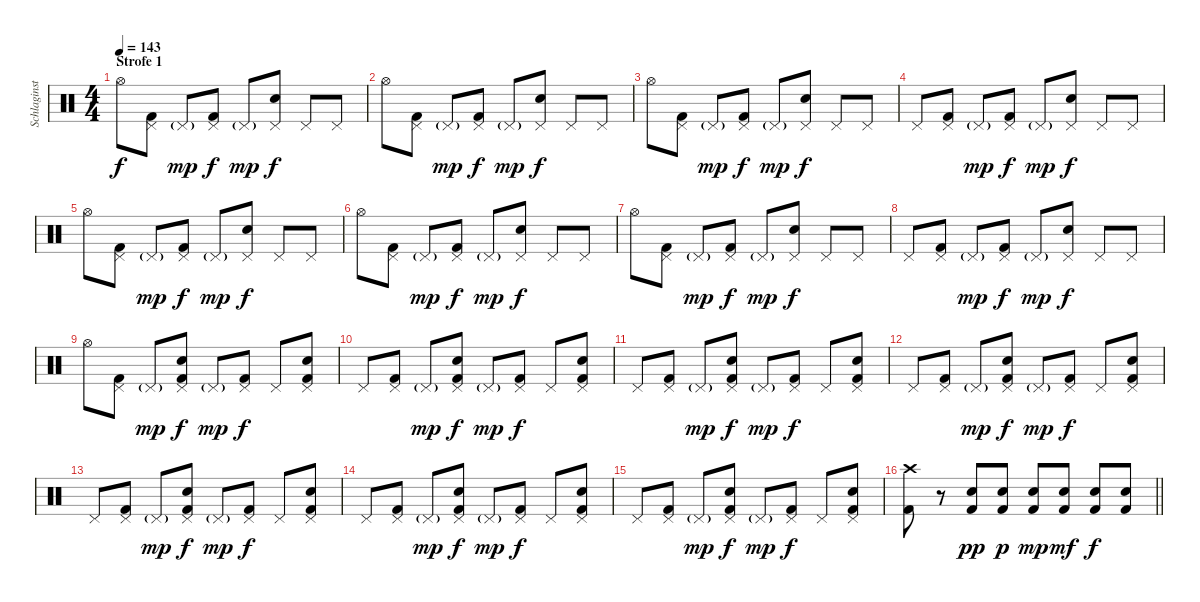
\track ("Schlaginstrumente - Auswahl" "Schlaginst") {instrument percussion}
\staff {score}
\articulation defaults
\ts (4 4)
\section ("" "Strofe 1")
\tempo 143
\clef neutral
\ks c "Hi-Hat (open)".8{dy f}
("Pedal Hi-Hat (hit)" "Kick (hit) 2").8 "Pedal Hi-Hat (hit)"{g}.8{dy mp} ("Pedal Hi-Hat (hit)" "Kick (hit) 2").8{dy f} "Pedal Hi-Hat (hit)"{g}.8{dy mp} ("Pedal Hi-Hat (hit)" "Electric Snare (hit)").8{dy f} "Pedal Hi-Hat (hit)".8 "Pedal Hi-Hat (hit)".8 |
"Hi-Hat (open)".8 ("Pedal Hi-Hat (hit)" "Kick (hit) 2").8 "Pedal Hi-Hat (hit)"{g}.8{dy mp} ("Pedal Hi-Hat (hit)" "Kick (hit) 2").8{dy f} "Pedal Hi-Hat (hit)"{g}.8{dy mp} ("Pedal Hi-Hat (hit)" "Electric Snare (hit)").8{dy f} "Pedal Hi-Hat (hit)".8 "Pedal Hi-Hat (hit)".8 |
"Hi-Hat (open)".8 ("Pedal Hi-Hat (hit)" "Kick (hit) 2").8 "Pedal Hi-Hat (hit)"{g}.8{dy mp} ("Pedal Hi-Hat (hit)" "Kick (hit) 2").8{dy f} "Pedal Hi-Hat (hit)"{g}.8{dy mp} ("Pedal Hi-Hat (hit)" "Electric Snare (hit)").8{dy f} "Pedal Hi-Hat (hit)".8 "Pedal Hi-Hat (hit)".8 |
"Pedal Hi-Hat (hit)".8 ("Pedal Hi-Hat (hit)" "Kick (hit) 2").8 "Pedal Hi-Hat (hit)"{g}.8{dy mp} ("Pedal Hi-Hat (hit)" "Kick (hit) 2").8{dy f} "Pedal Hi-Hat (hit)"{g}.8{dy mp} ("Pedal Hi-Hat (hit)" "Electric Snare (hit)").8{dy f} "Pedal Hi-Hat (hit)".8 "Pedal Hi-Hat (hit)".8 |
"Hi-Hat (open)".8 ("Pedal Hi-Hat (hit)" "Kick (hit) 2").8 "Pedal Hi-Hat (hit)"{g}.8{dy mp} ("Pedal Hi-Hat (hit)" "Kick (hit) 2").8{dy f} "Pedal Hi-Hat (hit)"{g}.8{dy mp} ("Pedal Hi-Hat (hit)" "Electric Snare (hit)").8{dy f} "Pedal Hi-Hat (hit)".8 "Pedal Hi-Hat (hit)".8 |
"Hi-Hat (open)".8 ("Pedal Hi-Hat (hit)" "Kick (hit) 2").8 "Pedal Hi-Hat (hit)"{g}.8{dy mp} ("Pedal Hi-Hat (hit)" "Kick (hit) 2").8{dy f} "Pedal Hi-Hat (hit)"{g}.8{dy mp} ("Pedal Hi-Hat (hit)" "Electric Snare (hit)").8{dy f} "Pedal Hi-Hat (hit)".8 "Pedal Hi-Hat (hit)".8 |
"Hi-Hat (open)".8 ("Pedal Hi-Hat (hit)" "Kick (hit) 2").8 "Pedal Hi-Hat (hit)"{g}.8{dy mp} ("Pedal Hi-Hat (hit)" "Kick (hit) 2").8{dy f} "Pedal Hi-Hat (hit)"{g}.8{dy mp} ("Pedal Hi-Hat (hit)" "Electric Snare (hit)").8{dy f} "Pedal Hi-Hat (hit)".8 "Pedal Hi-Hat (hit)".8 |
"Pedal Hi-Hat (hit)".8 ("Pedal Hi-Hat (hit)" "Kick (hit) 2").8 "Pedal Hi-Hat (hit)"{g}.8{dy mp} ("Pedal Hi-Hat (hit)" "Kick (hit) 2").8{dy f} "Pedal Hi-Hat (hit)"{g}.8{dy mp} ("Pedal Hi-Hat (hit)" "Electric Snare (hit)").8{dy f} "Pedal Hi-Hat (hit)".8 "Pedal Hi-Hat (hit)".8 |
"Hi-Hat (open)".8 ("Pedal Hi-Hat (hit)" "Kick (hit) 2").8 "Pedal Hi-Hat (hit)"{g}.8{dy mp} ("Pedal Hi-Hat (hit)" "Electric Snare (hit)" "Kick (hit) 2").8{dy f} "Pedal Hi-Hat (hit)"{g}.8{dy mp} ("Pedal Hi-Hat (hit)" "Kick (hit) 2").8{dy f} "Pedal Hi-Hat (hit)".8 ("Pedal Hi-Hat (hit)" "Electric Snare (hit)" "Kick (hit) 2").8 |
"Pedal Hi-Hat (hit)".8 ("Pedal Hi-Hat (hit)" "Kick (hit) 2").8 "Pedal Hi-Hat (hit)"{g}.8{dy mp} ("Pedal Hi-Hat (hit)" "Electric Snare (hit)" "Kick (hit) 2").8{dy f} "Pedal Hi-Hat (hit)"{g}.8{dy mp} ("Pedal Hi-Hat (hit)" "Kick (hit) 2").8{dy f} "Pedal Hi-Hat (hit)".8 ("Pedal Hi-Hat (hit)" "Electric Snare (hit)" "Kick (hit) 2").8 |
"Pedal Hi-Hat (hit)".8 ("Pedal Hi-Hat (hit)" "Kick (hit) 2").8 "Pedal Hi-Hat (hit)"{g}.8{dy mp} ("Pedal Hi-Hat (hit)" "Electric Snare (hit)" "Kick (hit) 2").8{dy f} "Pedal Hi-Hat (hit)"{g}.8{dy mp} ("Pedal Hi-Hat (hit)" "Kick (hit) 2").8{dy f} "Pedal Hi-Hat (hit)".8 ("Pedal Hi-Hat (hit)" "Electric Snare (hit)" "Kick (hit) 2").8 |
"Pedal Hi-Hat (hit)".8 ("Pedal Hi-Hat (hit)" "Kick (hit) 2").8 "Pedal Hi-Hat (hit)"{g}.8{dy mp} ("Pedal Hi-Hat (hit)" "Electric Snare (hit)" "Kick (hit) 2").8{dy f} "Pedal Hi-Hat (hit)"{g}.8{dy mp} ("Pedal Hi-Hat (hit)" "Kick (hit) 2").8{dy f} "Pedal Hi-Hat (hit)".8 ("Pedal Hi-Hat (hit)" "Electric Snare (hit)" "Kick (hit) 2").8 |
"Pedal Hi-Hat (hit)".8 ("Pedal Hi-Hat (hit)" "Kick (hit) 2").8 "Pedal Hi-Hat (hit)"{g}.8{dy mp} ("Pedal Hi-Hat (hit)" "Electric Snare (hit)" "Kick (hit) 2").8{dy f} "Pedal Hi-Hat (hit)"{g}.8{dy mp} ("Pedal Hi-Hat (hit)" "Kick (hit) 2").8{dy f} "Pedal Hi-Hat (hit)".8 ("Pedal Hi-Hat (hit)" "Electric Snare (hit)" "Kick (hit) 2").8 |
"Pedal Hi-Hat (hit)".8 ("Pedal Hi-Hat (hit)" "Kick (hit) 2").8 "Pedal Hi-Hat (hit)"{g}.8{dy mp} ("Pedal Hi-Hat (hit)" "Electric Snare (hit)" "Kick (hit) 2").8{dy f} "Pedal Hi-Hat (hit)"{g}.8{dy mp} ("Pedal Hi-Hat (hit)" "Kick (hit) 2").8{dy f} "Pedal Hi-Hat (hit)".8 ("Pedal Hi-Hat (hit)" "Electric Snare (hit)" "Kick (hit) 2").8 |
"Pedal Hi-Hat (hit)".8 ("Pedal Hi-Hat (hit)" "Kick (hit) 2").8 "Pedal Hi-Hat (hit)"{g}.8{dy mp} ("Pedal Hi-Hat (hit)" "Electric Snare (hit)" "Kick (hit) 2").8{dy f} "Pedal Hi-Hat (hit)"{g}.8{dy mp} ("Pedal Hi-Hat (hit)" "Kick (hit) 2").8{dy f} "Pedal Hi-Hat (hit)".8 ("Pedal Hi-Hat (hit)" "Electric Snare (hit)" "Kick (hit) 2").8 |
\barLineRight lightlight
("Crash high (hit)" "Kick (hit) 2").8 r.8 ("Electric Snare (hit)" "Kick (hit) 2").8{dy pp} ("Electric Snare (hit)" "Kick (hit) 2").8{dy p} ("Electric Snare (hit)" "Kick (hit) 2").8{dy mp} ("Electric Snare (hit)" "Kick (hit) 2").8{dy mf} ("Electric Snare (hit)" "Kick (hit) 2").8{dy f} ("Electric Snare (hit)" "Kick (hit) 2").8
